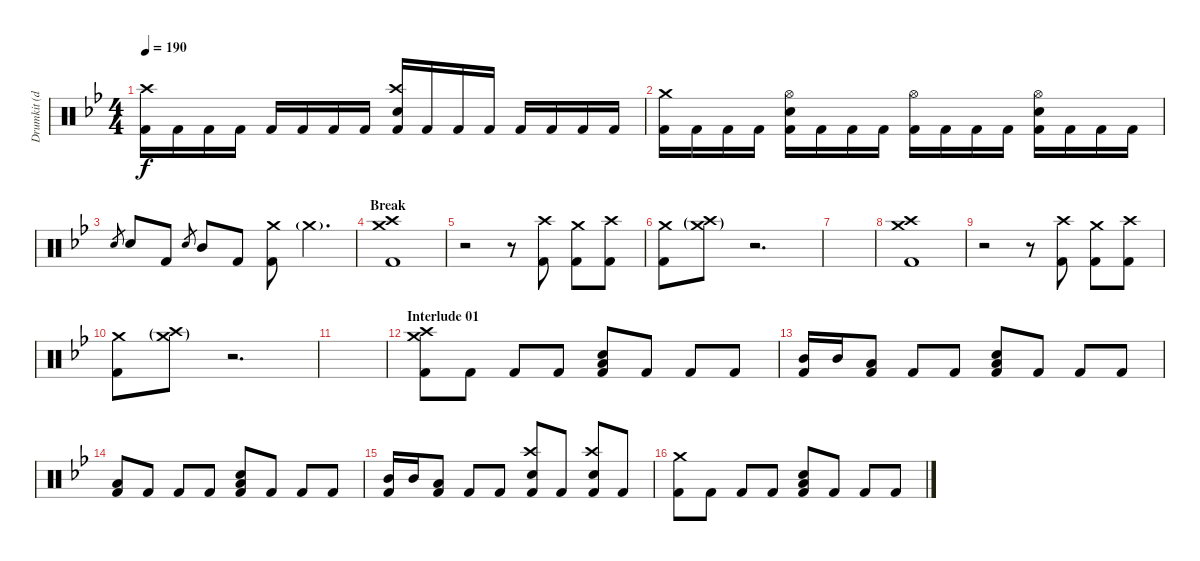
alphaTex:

\track ("Drumkit (don't unmute)" "Drumkit (d") {instrument percussion}
\staff {score}
\articulation defaults
\ts (4 4)
\tempo 190
\clef neutral
\ks bb
("Kick (hit) 2" "Crash high (hit)").16{dy f} "Kick (hit) 2".16 "Kick (hit) 2".16 "Kick (hit) 2".16 "Kick (hit) 2".16 "Kick (hit) 2".16 "Kick (hit) 2".16 "Kick (hit) 2".16 ("Kick (hit) 2" "Crash high (hit)" "Snare (hit) 2").16 "Kick (hit) 2".16 "Kick (hit) 2".16 "Kick (hit) 2".16 "Kick (hit) 2".16 "Kick (hit) 2".16 "Kick (hit) 2".16 "Kick (hit) 2".16 |
("Kick (hit) 2" "Crash medium (hit)").16 "Kick (hit) 2".16 "Kick (hit) 2".16 "Kick (hit) 2".16 ("Kick (hit) 2" "Snare (hit) 2" "Hi-Hat (open)").16 "Kick (hit) 2".16 "Kick (hit) 2".16 "Kick (hit) 2".16 ("Kick (hit) 2" "Hi-Hat (open)").16 "Kick (hit) 2".16 "Kick (hit) 2".16 "Kick (hit) 2".16 ("Kick (hit) 2" "Snare (hit) 2" "Hi-Hat (open)").16 "Kick (hit) 2".16 "Kick (hit) 2".16 "Kick (hit) 2".16 |
"Snare (hit)".8{gr} "Snare (hit) 2".8 "Kick (hit) 2".8 "Snare (hit)".8{gr} "Mid Tom (hit)".8 "Kick (hit) 2".8 ("Kick (hit) 2" "Crash medium (hit)").8 "Crash medium (hit)"{g}.4{d} |
\section ("" "Break")
("Kick (hit) 2" "Crash high (hit)" "Crash medium (hit)").1 |
r.2 r.8 ("Crash high (hit)" "Kick (hit) 2").8 ("Crash medium (hit)" "Kick (hit) 2").8 ("Crash high (hit)" "Kick (hit) 2").8 |
("Kick (hit) 2" "Crash medium (hit)").8 ("Crash medium (hit)"{g} "Crash high (hit)"{g}).8 r.2{d} |
|
("Kick (hit) 2" "Crash high (hit)" "Crash medium (hit)").1 |
r.2 r.8 ("Crash high (hit)" "Kick (hit) 2").8 ("Crash medium (hit)" "Kick (hit) 2").8 ("Crash high (hit)" "Kick (hit) 2").8 |
("Kick (hit) 2" "Crash medium (hit)").8 ("Crash medium (hit)"{g} "Crash high (hit)"{g}).8 r.2{d} |
|
\section ("" "Interlude 01")
("Kick (hit) 2" "Crash medium (hit)" "Crash high (hit)").8 "Kick (hit) 2".8 "Kick (hit) 2".8 "Kick (hit) 2".8 ("Kick (hit) 2" "Snare (hit) 2" "Low Tom (hit)").8 "Kick (hit) 2".8 "Kick (hit) 2".8 "Kick (hit) 2".8 |
("Kick (hit) 2" "Mid Tom (hit)").16 "Mid Tom (hit)".16 ("Kick (hit) 2" "Low Tom (hit)").8 "Kick (hit) 2".8 "Kick (hit) 2".8 ("Kick (hit) 2" "Snare (hit) 2" "Low Tom (hit)").8 "Kick (hit) 2".8 "Kick (hit) 2".8 "Kick (hit) 2".8 |
("Kick (hit) 2" "Low Tom (hit)").8 "Kick (hit) 2".8 "Kick (hit) 2".8 "Kick (hit) 2".8 ("Kick (hit) 2" "Snare (hit) 2" "Low Tom (hit)").8 "Kick (hit) 2".8 "Kick (hit) 2".8 "Kick (hit) 2".8 |
("Kick (hit) 2" "Mid Tom (hit)").16 "Mid Tom (hit)".16 ("Kick (hit) 2" "Low Tom (hit)").8 "Kick (hit) 2".8 "Kick (hit) 2".8 ("Kick (hit) 2" "Snare (hit) 2" "Crash high (hit)").8 "Kick (hit) 2".8 ("Kick (hit) 2" "Snare (hit) 2" "Crash high (hit)").8 "Kick (hit) 2".8 |
("Kick (hit) 2" "Crash medium (hit)").8 "Kick (hit) 2".8 "Kick (hit) 2".8 "Kick (hit) 2".8 ("Kick (hit) 2" "Snare (hit) 2" "Low Tom (hit)").8 "Kick (hit) 2".8 "Kick (hit) 2".8 "Kick (hit) 2".8
